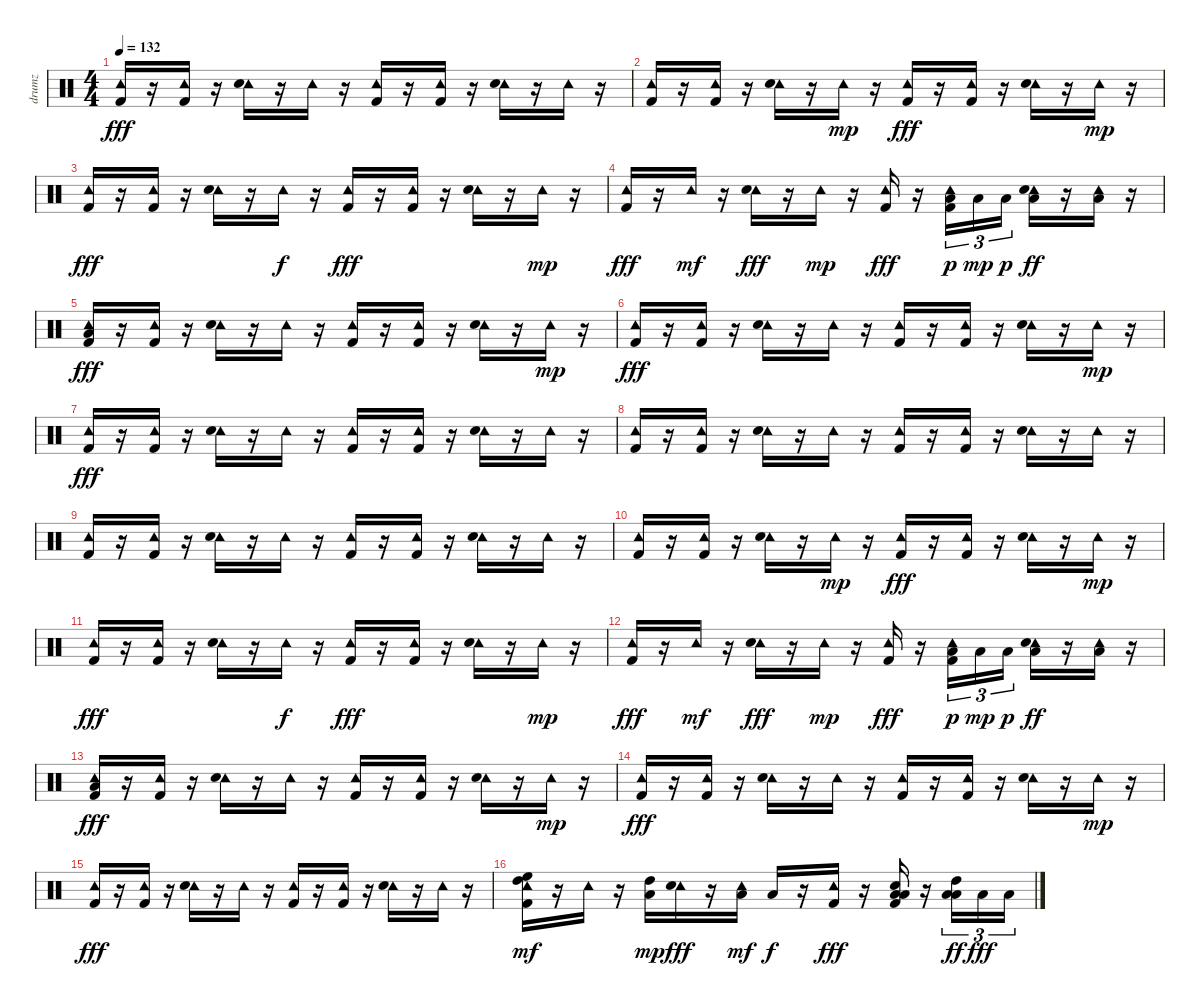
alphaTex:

\track ("drumz" "drumz") {instrument percussion}
\staff {score}
\articulation defaults
\ts (4 4)
\tempo 132
\clef neutral
\ks c
("Tambourine (hit)" "Kick (hit) 2").16{dy fff} r.16 ("Tambourine (hit)" "Kick (hit) 2").16 r.16 ("Tambourine (hit)" "Snare (hit) 2").16 r.16 "Tambourine (hit)".16 r.16 ("Tambourine (hit)" "Kick (hit) 2").16 r.16 ("Tambourine (hit)" "Kick (hit) 2").16 r.16 ("Tambourine (hit)" "Snare (hit) 2").16 r.16 "Tambourine (hit)".16 r.16 |
("Tambourine (hit)" "Kick (hit) 2").16 r.16 ("Tambourine (hit)" "Kick (hit) 2").16 r.16 ("Tambourine (hit)" "Snare (hit) 2").16 r.16 "Tambourine (hit)".16{dy mp} r.16 ("Tambourine (hit)" "Kick (hit) 2").16{dy fff} r.16 ("Tambourine (hit)" "Kick (hit) 2").16 r.16 ("Tambourine (hit)" "Snare (hit) 2").16 r.16 "Tambourine (hit)".16{dy mp} r.16 |
("Tambourine (hit)" "Kick (hit) 2").16{dy fff} r.16 ("Tambourine (hit)" "Kick (hit) 2").16 r.16 ("Tambourine (hit)" "Snare (hit) 2").16 r.16 "Tambourine (hit)".16{dy f} r.16 ("Tambourine (hit)" "Kick (hit) 2").16{dy fff} r.16 ("Tambourine (hit)" "Kick (hit) 2").16 r.16 ("Tambourine (hit)" "Snare (hit) 2").16 r.16 "Tambourine (hit)".16{dy mp} r.16 |
("Tambourine (hit)" "Kick (hit) 2").16{dy fff} r.16 "Tambourine (hit)".16{dy mf} r.16 ("Tambourine (hit)" "Snare (hit) 2").16{dy fff} r.16 "Tambourine (hit)".16{dy mp} r.16 ("Tambourine (hit)" "Kick (hit) 2").16{dy fff} r.16 ("Tambourine (hit)" "Kick (hit) 2" "Low Tom (hit)").16{tu (3 2) dy p} "Low Tom (hit)".16{tu (3 2) dy mp} "Low Tom (hit)".16{tu (3 2) dy p} ("Tambourine (hit)" "Snare (hit) 2" "Low Tom (hit)").16{dy ff} r.16 ("Tambourine (hit)" "Low Floor Tom (hit)").16 r.16 |
("Tambourine (hit)" "Kick (hit) 2" "Low Floor Tom (hit)").16{dy fff} r.16 ("Tambourine (hit)" "Kick (hit) 2").16 r.16 ("Tambourine (hit)" "Snare (hit) 2").16 r.16 "Tambourine (hit)".16 r.16 ("Tambourine (hit)" "Kick (hit) 2").16 r.16 ("Tambourine (hit)" "Kick (hit) 2").16 r.16 ("Tambourine (hit)" "Snare (hit) 2").16 r.16 "Tambourine (hit)".16{dy mp} r.16 |
("Tambourine (hit)" "Kick (hit) 2").16{dy fff} r.16 ("Tambourine (hit)" "Kick (hit) 2").16 r.16 ("Tambourine (hit)" "Snare (hit) 2").16 r.16 "Tambourine (hit)".16 r.16 ("Tambourine (hit)" "Kick (hit) 2").16 r.16 ("Tambourine (hit)" "Kick (hit) 2").16 r.16 ("Tambourine (hit)" "Snare (hit) 2").16 r.16 "Tambourine (hit)".16{dy mp} r.16 |
("Tambourine (hit)" "Kick (hit) 2").16{dy fff} r.16 ("Tambourine (hit)" "Kick (hit) 2").16 r.16 ("Tambourine (hit)" "Snare (hit) 2").16 r.16 "Tambourine (hit)".16 r.16 ("Tambourine (hit)" "Kick (hit) 2").16 r.16 ("Tambourine (hit)" "Kick (hit) 2").16 r.16 ("Tambourine (hit)" "Snare (hit) 2").16 r.16 "Tambourine (hit)".16 r.16 |
("Tambourine (hit)" "Kick (hit) 2").16 r.16 ("Tambourine (hit)" "Kick (hit) 2").16 r.16 ("Tambourine (hit)" "Snare (hit) 2").16 r.16 "Tambourine (hit)".16 r.16 ("Tambourine (hit)" "Kick (hit) 2").16 r.16 ("Tambourine (hit)" "Kick (hit) 2").16 r.16 ("Tambourine (hit)" "Snare (hit) 2").16 r.16 "Tambourine (hit)".16 r.16 |
("Tambourine (hit)" "Kick (hit) 2").16 r.16 ("Tambourine (hit)" "Kick (hit) 2").16 r.16 ("Tambourine (hit)" "Snare (hit) 2").16 r.16 "Tambourine (hit)".16 r.16 ("Tambourine (hit)" "Kick (hit) 2").16 r.16 ("Tambourine (hit)" "Kick (hit) 2").16 r.16 ("Tambourine (hit)" "Snare (hit) 2").16 r.16 "Tambourine (hit)".16 r.16 |
("Tambourine (hit)" "Kick (hit) 2").16 r.16 ("Tambourine (hit)" "Kick (hit) 2").16 r.16 ("Tambourine (hit)" "Snare (hit) 2").16 r.16 "Tambourine (hit)".16{dy mp} r.16 ("Tambourine (hit)" "Kick (hit) 2").16{dy fff} r.16 ("Tambourine (hit)" "Kick (hit) 2").16 r.16 ("Tambourine (hit)" "Snare (hit) 2").16 r.16 "Tambourine (hit)".16{dy mp} r.16 |
("Tambourine (hit)" "Kick (hit) 2").16{dy fff} r.16 ("Tambourine (hit)" "Kick (hit) 2").16 r.16 ("Tambourine (hit)" "Snare (hit) 2").16 r.16 "Tambourine (hit)".16{dy f} r.16 ("Tambourine (hit)" "Kick (hit) 2").16{dy fff} r.16 ("Tambourine (hit)" "Kick (hit) 2").16 r.16 ("Tambourine (hit)" "Snare (hit) 2").16 r.16 "Tambourine (hit)".16{dy mp} r.16 |
("Tambourine (hit)" "Kick (hit) 2").16{dy fff} r.16 "Tambourine (hit)".16{dy mf} r.16 ("Tambourine (hit)" "Snare (hit) 2").16{dy fff} r.16 "Tambourine (hit)".16{dy mp} r.16 ("Tambourine (hit)" "Kick (hit) 2").16{dy fff} r.16 ("Tambourine (hit)" "Kick (hit) 2" "Low Tom (hit)").16{tu (3 2) dy p} "Low Tom (hit)".16{tu (3 2) dy mp} "Low Tom (hit)".16{tu (3 2) dy p} ("Tambourine (hit)" "Snare (hit) 2" "Low Tom (hit)").16{dy ff} r.16 ("Tambourine (hit)" "Low Floor Tom (hit)").16 r.16 |
("Tambourine (hit)" "Kick (hit) 2" "Low Floor Tom (hit)").16{dy fff} r.16 ("Tambourine (hit)" "Kick (hit) 2").16 r.16 ("Tambourine (hit)" "Snare (hit) 2").16 r.16 "Tambourine (hit)".16 r.16 ("Tambourine (hit)" "Kick (hit) 2").16 r.16 ("Tambourine (hit)" "Kick (hit) 2").16 r.16 ("Tambourine (hit)" "Snare (hit) 2").16 r.16 "Tambourine (hit)".16{dy mp} r.16 |
("Tambourine (hit)" "Kick (hit) 2").16{dy fff} r.16 ("Tambourine (hit)" "Kick (hit) 2").16 r.16 ("Tambourine (hit)" "Snare (hit) 2").16 r.16 "Tambourine (hit)".16 r.16 ("Tambourine (hit)" "Kick (hit) 2").16 r.16 ("Tambourine (hit)" "Kick (hit) 2").16 r.16 ("Tambourine (hit)" "Snare (hit) 2").16 r.16 "Tambourine (hit)".16{dy mp} r.16 |
("Tambourine (hit)" "Kick (hit) 2").16{dy fff} r.16 ("Tambourine (hit)" "Kick (hit) 2").16 r.16 ("Tambourine (hit)" "Snare (hit) 2").16 r.16 "Tambourine (hit)".16 r.16 ("Tambourine (hit)" "Kick (hit) 2").16 r.16 ("Tambourine (hit)" "Kick (hit) 2").16 r.16 ("Tambourine (hit)" "Snare (hit) 2").16 r.16 "Tambourine (hit)".16 r.16 |
("Tambourine (hit)" "Kick (hit) 2" "High Tom (hit)" "High Floor Tom (hit)").16{dy mf} r.16 "Tambourine (hit)".16 r.16 ("High Tom (hit)" "Low Tom (hit)").16{dy mp} ("Tambourine (hit)" "Snare (hit) 2").16{dy fff} r.16 ("Tambourine (hit)" "Low Floor Tom (hit)").16{dy mf} "Low Tom (hit)".16{dy f} r.16 ("Tambourine (hit)" "Kick (hit) 2").16{dy fff} r.16 ("Snare (hit) 2" "Kick (hit) 2" "Low Tom (hit)" "Low Floor Tom (hit)").16 r.16 ("High Tom (hit)" "Low Tom (hit)" "Low Floor Tom (hit)").16{tu (3 2) dy ff} "Low Tom (hit)".16{tu (3 2) dy fff} "Low Floor Tom (hit)".16{tu (3 2)}
